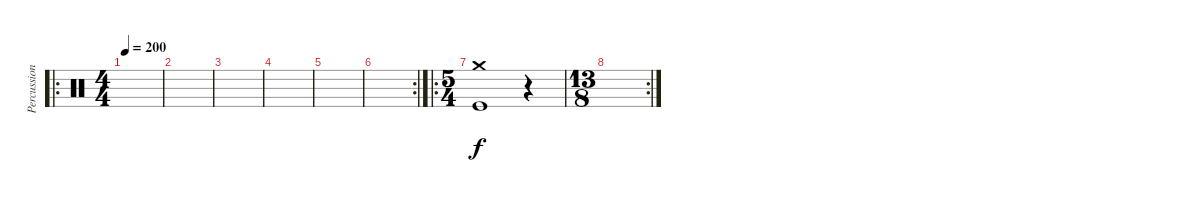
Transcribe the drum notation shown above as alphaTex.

\track ("Percussion" "Percussion") {instrument percussion}
\staff {score}
\articulation defaults
\ro
\ts (4 4)
\tempo 200
\clef neutral
\ks c
|
|
|
|
|
\rc 2
|
\ro
\ts (5 4)
("Crash medium (hit)" "Kick (hit)").1 r.4 |
\rc 2
\ts (13 8)
